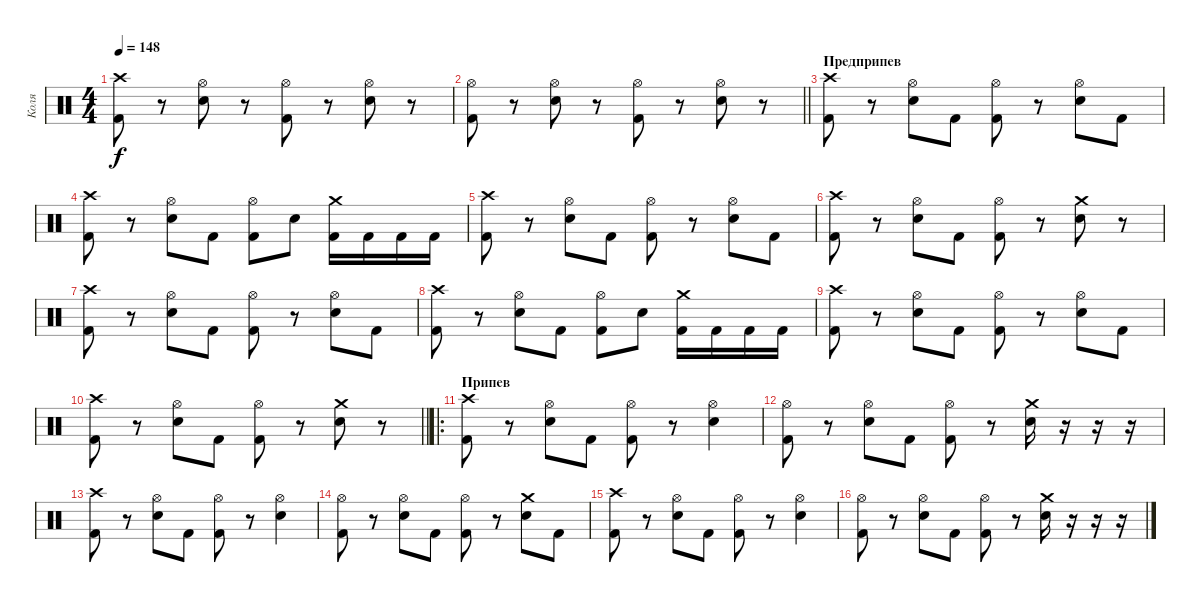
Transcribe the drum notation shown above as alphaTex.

\track ("Коля" "Коля") {instrument percussion}
\staff {score}
\articulation defaults
\ts (4 4)
\tempo 148
\clef neutral
\ks c
("Kick (hit) 2" "Crash high (hit)").8{dy f} r.8 ("Electric Snare (hit)" "Hi-Hat (open)").8 r.8 ("Kick (hit) 2" "Hi-Hat (open)").8 r.8 ("Electric Snare (hit)" "Hi-Hat (open)").8 r.8 |
\barLineRight lightlight
("Kick (hit) 2" "Hi-Hat (open)").8 r.8 ("Electric Snare (hit)" "Hi-Hat (open)").8 r.8 ("Kick (hit) 2" "Hi-Hat (open)").8 r.8 ("Electric Snare (hit)" "Hi-Hat (open)").8 r.8 |
\section ("" "Предприпев")
("Kick (hit) 2" "Crash high (hit)").8 r.8 ("Electric Snare (hit)" "Hi-Hat (open)").8 "Kick (hit) 2".8 ("Kick (hit) 2" "Hi-Hat (open)").8 r.8 ("Electric Snare (hit)" "Hi-Hat (open)").8 "Kick (hit) 2".8 |
("Kick (hit) 2" "Crash high (hit)").8 r.8 ("Electric Snare (hit)" "Hi-Hat (open)").8 "Kick (hit) 2".8 ("Kick (hit) 2" "Hi-Hat (open)").8 "Electric Snare (hit)".8 ("Kick (hit) 2" "Crash medium (hit)").16 "Kick (hit) 2".16 "Kick (hit) 2".16 "Kick (hit) 2".16 |
("Kick (hit) 2" "Crash high (hit)").8 r.8 ("Electric Snare (hit)" "Hi-Hat (open)").8 "Kick (hit) 2".8 ("Kick (hit) 2" "Hi-Hat (open)").8 r.8 ("Electric Snare (hit)" "Hi-Hat (open)").8 "Kick (hit) 2".8 |
("Kick (hit) 2" "Crash high (hit)").8 r.8 ("Electric Snare (hit)" "Hi-Hat (open)").8 "Kick (hit) 2".8 ("Kick (hit) 2" "Hi-Hat (open)").8 r.8 ("Electric Snare (hit)" "Crash medium (hit)").8 r.8 |
("Kick (hit) 2" "Crash high (hit)").8 r.8 ("Electric Snare (hit)" "Hi-Hat (open)").8 "Kick (hit) 2".8 ("Kick (hit) 2" "Hi-Hat (open)").8 r.8 ("Electric Snare (hit)" "Hi-Hat (open)").8 "Kick (hit) 2".8 |
("Kick (hit) 2" "Crash high (hit)").8 r.8 ("Electric Snare (hit)" "Hi-Hat (open)").8 "Kick (hit) 2".8 ("Kick (hit) 2" "Hi-Hat (open)").8 "Electric Snare (hit)".8 ("Kick (hit) 2" "Crash medium (hit)").16 "Kick (hit) 2".16 "Kick (hit) 2".16 "Kick (hit) 2".16 |
("Kick (hit) 2" "Crash high (hit)").8 r.8 ("Electric Snare (hit)" "Hi-Hat (open)").8 "Kick (hit) 2".8 ("Kick (hit) 2" "Hi-Hat (open)").8 r.8 ("Electric Snare (hit)" "Hi-Hat (open)").8 "Kick (hit) 2".8 |
\barLineRight lightlight
("Kick (hit) 2" "Crash high (hit)").8 r.8 ("Electric Snare (hit)" "Hi-Hat (open)").8 "Kick (hit) 2".8 ("Kick (hit) 2" "Hi-Hat (open)").8 r.8 ("Electric Snare (hit)" "Crash medium (hit)").8 r.8 |
\ro
\section ("" "Припев")
("Kick (hit) 2" "Crash high (hit)").8 r.8 ("Electric Snare (hit)" "Hi-Hat (open)").8 "Kick (hit) 2".8 ("Kick (hit) 2" "Hi-Hat (open)").8 r.8 ("Electric Snare (hit)" "Hi-Hat (open)").4 |
("Kick (hit) 2" "Hi-Hat (open)").8 r.8 ("Electric Snare (hit)" "Hi-Hat (open)").8 "Kick (hit) 2".8 ("Kick (hit) 2" "Hi-Hat (open)").8 r.8 ("Electric Snare (hit)" "Crash medium (hit)").16 r.16 r.16 r.16 |
("Kick (hit) 2" "Crash high (hit)").8 r.8 ("Electric Snare (hit)" "Hi-Hat (open)").8 "Kick (hit) 2".8 ("Kick (hit) 2" "Hi-Hat (open)").8 r.8 ("Electric Snare (hit)" "Hi-Hat (open)").4 |
("Kick (hit) 2" "Hi-Hat (open)").8 r.8 ("Electric Snare (hit)" "Hi-Hat (open)").8 "Kick (hit) 2".8 ("Kick (hit) 2" "Hi-Hat (open)").8 r.8 ("Electric Snare (hit)" "Crash medium (hit)").8 "Kick (hit) 2".8 |
("Kick (hit) 2" "Crash high (hit)").8 r.8 ("Electric Snare (hit)" "Hi-Hat (open)").8 "Kick (hit) 2".8 ("Kick (hit) 2" "Hi-Hat (open)").8 r.8 ("Electric Snare (hit)" "Hi-Hat (open)").4 |
("Kick (hit) 2" "Hi-Hat (open)").8 r.8 ("Electric Snare (hit)" "Hi-Hat (open)").8 "Kick (hit) 2".8 ("Kick (hit) 2" "Hi-Hat (open)").8 r.8 ("Electric Snare (hit)" "Crash medium (hit)").16 r.16 r.16 r.16
